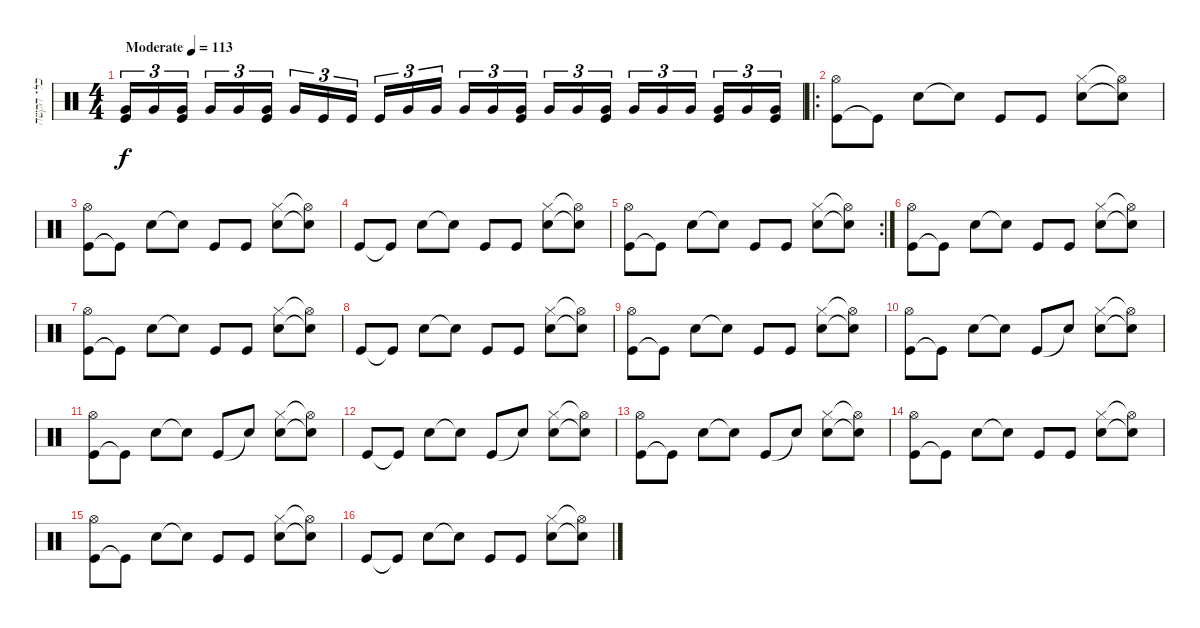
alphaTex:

\track ("כלי הקשה" "כלי הקשה") {instrument percussion}
\staff {score}
\articulation defaults
\ts (4 4)
\tempo (113 "Moderate")
\clef neutral
\ks c
("Very Low Tom (hit)" "Kick (hit)").16{tu (3 2) dy f} "Very Low Tom (hit)".16{tu (3 2)} ("Very Low Tom (hit)" "Kick (hit)").16{tu (3 2) beam splitsecondary} "Very Low Tom (hit)".16{tu (3 2)} "Very Low Tom (hit)".16{tu (3 2)} ("Very Low Tom (hit)" "Kick (hit)").16{tu (3 2)} "Very Low Tom (hit)".16{tu (3 2)} "Kick (hit)".16{tu (3 2)} "Kick (hit)".16{tu (3 2) beam splitsecondary} "Kick (hit)".16{tu (3 2)} "Very Low Tom (hit)".16{tu (3 2)} "Very Low Tom (hit)".16{tu (3 2)} "Very Low Tom (hit)".16{tu (3 2)} "Very Low Tom (hit)".16{tu (3 2)} ("Very Low Tom (hit)" "Kick (hit)").16{tu (3 2) beam splitsecondary} "Very Low Tom (hit)".16{tu (3 2)} "Very Low Tom (hit)".16{tu (3 2)} ("Very Low Tom (hit)" "Kick (hit)").16{tu (3 2)} "Very Low Tom (hit)".16{tu (3 2)} "Very Low Tom (hit)".16{tu (3 2)} "Very Low Tom (hit)".16{tu (3 2) beam splitsecondary} ("Very Low Tom (hit)" "Kick (hit)").16{tu (3 2)} "Very Low Tom (hit)".16{tu (3 2)} ("Very Low Tom (hit)" "Kick (hit)").16{tu (3 2)} |
\ro
("Kick (hit)" "Hi-Hat (open)").8 "Kick (hit)"{t}.8 "Electric Snare (hit)".8 "Snare (hit)"{t}.8 "Kick (hit)".8 "Kick (hit)".8 ("Snare (hit) 2" "Hi-Hat (closed)").8 ("Snare (hit)"{t} "Hi-Hat (open)"{t}).8 |
("Kick (hit)" "Hi-Hat (open)").8 "Kick (hit)"{t}.8 "Electric Snare (hit)".8 "Snare (hit)"{t}.8 "Kick (hit)".8 "Kick (hit)".8 ("Snare (hit) 2" "Hi-Hat (closed)").8 ("Snare (hit)"{t} "Hi-Hat (open)"{t}).8 |
"Kick (hit)".8 "Kick (hit)"{t}.8 "Electric Snare (hit)".8 "Snare (hit)"{t}.8 "Kick (hit)".8 "Kick (hit)".8 ("Snare (hit) 2" "Hi-Hat (closed)").8 ("Snare (hit)"{t} "Hi-Hat (open)"{t}).8 |
\rc 2
("Kick (hit)" "Hi-Hat (open)").8 "Kick (hit)"{t}.8 "Electric Snare (hit)".8 "Snare (hit)"{t}.8 "Kick (hit)".8 "Kick (hit)".8 ("Snare (hit) 2" "Hi-Hat (closed)").8 ("Snare (hit)"{t} "Hi-Hat (open)"{t}).8 |
("Kick (hit)" "Hi-Hat (open)").8 "Kick (hit)"{t}.8 "Electric Snare (hit)".8 "Snare (hit)"{t}.8 "Kick (hit)".8 "Kick (hit)".8 ("Snare (hit) 2" "Hi-Hat (closed)").8 ("Snare (hit)"{t} "Hi-Hat (open)"{t}).8 |
("Kick (hit)" "Hi-Hat (open)").8 "Kick (hit)"{t}.8 "Electric Snare (hit)".8 "Snare (hit)"{t}.8 "Kick (hit)".8 "Kick (hit)".8 ("Snare (hit) 2" "Hi-Hat (closed)").8 ("Snare (hit)"{t} "Hi-Hat (open)"{t}).8 |
"Kick (hit)".8 "Kick (hit)"{t}.8 "Electric Snare (hit)".8 "Snare (hit)"{t}.8 "Kick (hit)".8 "Kick (hit)".8 ("Snare (hit) 2" "Hi-Hat (closed)").8 ("Snare (hit)"{t} "Hi-Hat (open)"{t}).8 |
("Kick (hit)" "Hi-Hat (open)").8 "Kick (hit)"{t}.8 "Electric Snare (hit)".8 "Snare (hit)"{t}.8 "Kick (hit)".8 "Kick (hit)".8 ("Snare (hit) 2" "Hi-Hat (closed)").8 ("Snare (hit)"{t} "Hi-Hat (open)"{t}).8 |
("Kick (hit)" "Hi-Hat (open)").8 "Kick (hit)"{t}.8 "Electric Snare (hit)".8 "Snare (hit)"{t}.8 "Kick (hit)".8 "Snare (hit)"{t}.8 ("Electric Snare (hit)" "Hi-Hat (closed)").8 ("Snare (hit)"{t} "Hi-Hat (open)"{t}).8 |
("Kick (hit)" "Hi-Hat (open)").8 "Kick (hit)"{t}.8 "Electric Snare (hit)".8 "Snare (hit)"{t}.8 "Kick (hit)".8 "Snare (hit)"{t}.8 ("Electric Snare (hit)" "Hi-Hat (closed)").8 ("Snare (hit)"{t} "Hi-Hat (open)"{t}).8 |
"Kick (hit)".8 "Kick (hit)"{t}.8 "Electric Snare (hit)".8 "Snare (hit)"{t}.8 "Kick (hit)".8 "Snare (hit)"{t}.8 ("Electric Snare (hit)" "Hi-Hat (closed)").8 ("Snare (hit)"{t} "Hi-Hat (open)"{t}).8 |
("Kick (hit)" "Hi-Hat (open)").8 "Kick (hit)"{t}.8 "Electric Snare (hit)".8 "Snare (hit)"{t}.8 "Kick (hit)".8 "Snare (hit)"{t}.8 ("Electric Snare (hit)" "Hi-Hat (closed)").8 ("Snare (hit)"{t} "Hi-Hat (open)"{t}).8 |
("Kick (hit)" "Hi-Hat (open)").8 "Kick (hit)"{t}.8 "Electric Snare (hit)".8 "Snare (hit)"{t}.8 "Kick (hit)".8 "Kick (hit)".8 ("Snare (hit) 2" "Hi-Hat (closed)").8 ("Snare (hit)"{t} "Hi-Hat (open)"{t}).8 |
("Kick (hit)" "Hi-Hat (open)").8 "Kick (hit)"{t}.8 "Electric Snare (hit)".8 "Snare (hit)"{t}.8 "Kick (hit)".8 "Kick (hit)".8 ("Snare (hit) 2" "Hi-Hat (closed)").8 ("Snare (hit)"{t} "Hi-Hat (open)"{t}).8 |
"Kick (hit)".8 "Kick (hit)"{t}.8 "Electric Snare (hit)".8 "Snare (hit)"{t}.8 "Kick (hit)".8 "Kick (hit)".8 ("Snare (hit) 2" "Hi-Hat (closed)").8 ("Snare (hit)"{t} "Hi-Hat (open)"{t}).8
